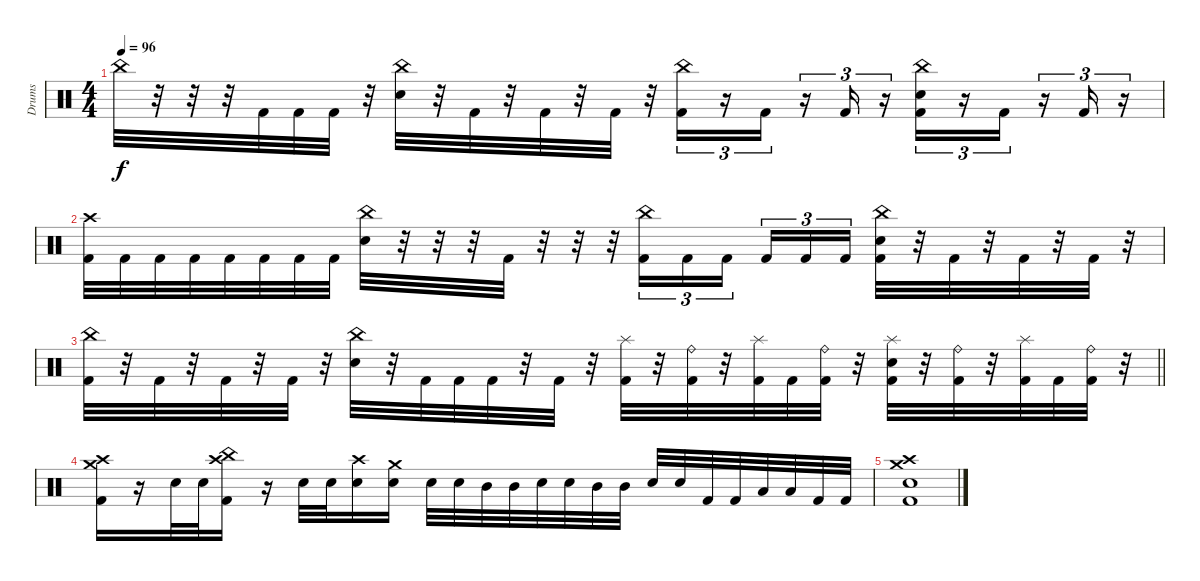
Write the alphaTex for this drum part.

\track ("Drums" "Drums") {instrument percussion}
\staff {score}
\articulation defaults
\ts (4 4)
\tempo 96
\clef neutral
\ks c "China (hit)".32{dy f}
r.32 r.32 r.32 "Kick (hit) 2".32 "Kick (hit) 2".32 "Kick (hit) 2".32 r.32 ("China (hit)" "Snare (hit) 2").32 r.32 "Kick (hit) 2".32 r.32 "Kick (hit) 2".32 r.32 "Kick (hit) 2".32 r.32 ("China (hit)" "Kick (hit) 2").16{tu (3 2)} r.16{tu (3 2)} "Kick (hit) 2".16{tu (3 2)} r.16{tu (3 2)} "Kick (hit) 2".16{tu (3 2)} r.16{tu (3 2)} ("China (hit)" "Snare (hit) 2" "Kick (hit) 2").16{tu (3 2)} r.16{tu (3 2)} "Kick (hit) 2".16{tu (3 2)} r.16{tu (3 2)} "Kick (hit) 2".16{tu (3 2)} r.16{tu (3 2)} |
("Crash high (hit)" "Kick (hit) 2").32 "Kick (hit) 2".32 "Kick (hit) 2".32 "Kick (hit) 2".32 "Kick (hit) 2".32 "Kick (hit) 2".32 "Kick (hit) 2".32 "Kick (hit) 2".32 ("China (hit)" "Snare (hit) 2").32 r.32 r.32 r.32 "Kick (hit) 2".32 r.32 r.32 r.32 ("China (hit)" "Kick (hit) 2").16{tu (3 2)} "Kick (hit) 2".16{tu (3 2)} "Kick (hit) 2".16{tu (3 2) beam splitsecondary} "Kick (hit) 2".16{tu (3 2)} "Kick (hit) 2".16{tu (3 2)} "Kick (hit) 2".16{tu (3 2)} ("China (hit)" "Snare (hit) 2" "Kick (hit) 2").32 r.32 "Kick (hit) 2".32 r.32 "Kick (hit) 2".32 r.32 "Kick (hit) 2".32 r.32 |
\barLineRight lightlight
("China (hit)" "Kick (hit) 2").32 r.32 "Kick (hit) 2".32 r.32 "Kick (hit) 2".32 r.32 "Kick (hit) 2".32 r.32 ("China (hit)" "Snare (hit) 2").32 r.32 "Kick (hit) 2".32 "Kick (hit) 2".32 "Kick (hit) 2".32 r.32 "Kick (hit) 2".32 r.32 ("Splash (hit)" "Kick (hit) 2").32 r.32 ("Ride (bell)" "Kick (hit) 2").32 r.32 ("Splash (hit)" "Kick (hit) 2").32 "Kick (hit) 2".32 ("Ride (bell)" "Kick (hit) 2").32 r.32 ("Splash (hit)" "Snare (hit) 2" "Kick (hit) 2").32 r.32 ("Ride (bell)" "Kick (hit) 2").32 r.32 ("Splash (hit)" "Kick (hit) 2").32 "Kick (hit) 2".32 ("Ride (bell)" "Kick (hit) 2").32 r.32 |
("Crash medium (hit)" "Crash high (hit)" "Kick (hit) 2").16 r.16 "Snare (hit) 2".32 "Snare (hit) 2".32 ("China (hit)" "Crash high (hit)" "Kick (hit) 2").16 r.16 "Snare (hit) 2".32 "Snare (hit) 2".32 ("Crash high (hit)" "Snare (hit) 2").16 ("Crash medium (hit)" "Snare (hit) 2").16 "Snare (hit) 2".32 "Snare (hit) 2".32 "Mid Tom (hit)".32 "Mid Tom (hit)".32 "Snare (hit) 2".32 "Snare (hit) 2".32 "Mid Tom (hit)".32 "Mid Tom (hit)".32 "Snare (hit) 2".32 "Snare (hit) 2".32 "Kick (hit) 2".32 "Kick (hit) 2".32 "Low Tom (hit)".32 "Low Tom (hit)".32 "Kick (hit) 2".32 "Kick (hit) 2".32 |
("Crash high (hit)" "Crash medium (hit)" "Snare (hit) 2" "Kick (hit) 2").1
